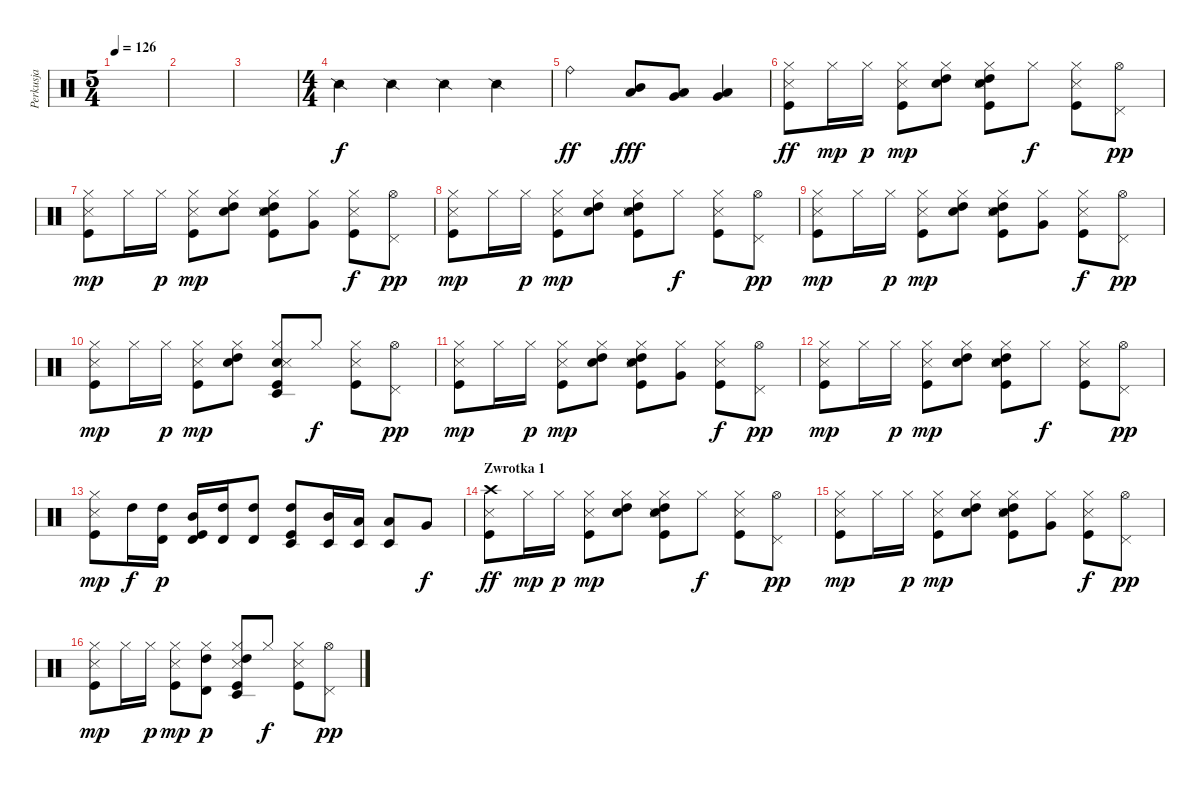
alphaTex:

\track ("Perkusja" "Perkusja") {instrument percussion}
\staff {score}
\articulation defaults
\ts (5 4)
\tempo 126
\clef neutral
\ks c
|
|
|
\ts (4 4)
"Snare (side stick) 2".4 "Snare (side stick) 2".4 "Snare (side stick) 2".4 "Snare (side stick) 2".4 |
"Ride (bell)".2{dy ff} ("Mid Tom (hit)" "Low Tom (hit)").8{dy fff} ("Low Tom (hit)" "Very Low Tom (hit)").8 ("Very Low Tom (hit)" "Low Floor Tom (hit)").4 |
("Hi-Hat (closed)" "Kick (hit)" "Snare (side stick) 3").8{dy ff} "Hi-Hat (closed)".16{dy mp} "Hi-Hat (closed)".16{dy p} ("Hi-Hat (closed)" "Kick (hit)" "Snare (side stick) 3").8{dy mp} ("Hi-Hat (closed)" "High Tom (hit)" "Electric Snare (hit)").8 ("Hi-Hat (closed)" "Kick (hit)" "High Tom (hit)" "Electric Snare (hit)" "Snare (side stick) 3").8 "Hi-Hat (closed)".8{dy f} ("Hi-Hat (closed)" "Kick (hit)" "Snare (side stick) 3").8 ("Hi-Hat (open)" "Pedal Hi-Hat (hit)").8{dy pp} |
("Hi-Hat (closed)" "Kick (hit)" "Snare (side stick) 3").8{dy mp} "Hi-Hat (closed)".16 "Hi-Hat (closed)".16{dy p} ("Hi-Hat (closed)" "Kick (hit)" "Snare (side stick) 3").8{dy mp} ("Hi-Hat (closed)" "High Tom (hit)" "Electric Snare (hit)").8 ("Hi-Hat (closed)" "Kick (hit)" "High Tom (hit)" "Electric Snare (hit)" "Snare (side stick) 3").8 ("Hi-Hat (closed)" "Very Low Tom (hit)").8 ("Hi-Hat (closed)" "Kick (hit)" "Snare (side stick) 3").8{dy f} ("Hi-Hat (open)" "Pedal Hi-Hat (hit)").8{dy pp} |
("Hi-Hat (closed)" "Kick (hit)" "Snare (side stick) 3").8{dy mp} "Hi-Hat (closed)".16 "Hi-Hat (closed)".16{dy p} ("Hi-Hat (closed)" "Kick (hit)" "Snare (side stick) 3").8{dy mp} ("Hi-Hat (closed)" "High Tom (hit)" "Electric Snare (hit)").8 ("Hi-Hat (closed)" "Kick (hit)" "High Tom (hit)" "Electric Snare (hit)" "Snare (side stick) 3").8 "Hi-Hat (closed)".8{dy f} ("Hi-Hat (closed)" "Kick (hit)" "Snare (side stick) 3").8 ("Hi-Hat (open)" "Pedal Hi-Hat (hit)").8{dy pp} |
("Hi-Hat (closed)" "Kick (hit)" "Snare (side stick) 3").8{dy mp} "Hi-Hat (closed)".16 "Hi-Hat (closed)".16{dy p} ("Hi-Hat (closed)" "Kick (hit)" "Snare (side stick) 3").8{dy mp} ("Hi-Hat (closed)" "High Tom (hit)" "Electric Snare (hit)").8 ("Hi-Hat (closed)" "Kick (hit)" "High Tom (hit)" "Electric Snare (hit)" "Snare (side stick) 3").8 ("Hi-Hat (closed)" "Very Low Tom (hit)").8 ("Hi-Hat (closed)" "Kick (hit)" "Snare (side stick) 3").8{dy f} ("Hi-Hat (open)" "Pedal Hi-Hat (hit)").8{dy pp} |
("Hi-Hat (closed)" "Kick (hit)" "Snare (side stick) 3").8{dy mp} "Hi-Hat (closed)".16 "Hi-Hat (closed)".16{dy p} ("Hi-Hat (closed)" "Kick (hit)" "Snare (side stick) 3").8{dy mp} ("Hi-Hat (closed)" "High Tom (hit)" "Electric Snare (hit)").8 ("Hi-Hat (closed)" "Kick (hit)" "Timbale low (hit)" "Electric Snare (hit)" "Snare (side stick) 3").8 "Hi-Hat (closed)".8{dy f} ("Hi-Hat (closed)" "Kick (hit)" "Snare (side stick) 3").8 ("Hi-Hat (open)" "Pedal Hi-Hat (hit)").8{dy pp} |
("Hi-Hat (closed)" "Kick (hit)" "Snare (side stick) 3").8{dy mp} "Hi-Hat (closed)".16 "Hi-Hat (closed)".16{dy p} ("Hi-Hat (closed)" "Kick (hit)" "Snare (side stick) 3").8{dy mp} ("Hi-Hat (closed)" "High Tom (hit)" "Electric Snare (hit)").8 ("Hi-Hat (closed)" "Kick (hit)" "High Tom (hit)" "Electric Snare (hit)" "Snare (side stick) 3").8 ("Hi-Hat (closed)" "Very Low Tom (hit)").8 ("Hi-Hat (closed)" "Kick (hit)" "Snare (side stick) 3").8{dy f} ("Hi-Hat (open)" "Pedal Hi-Hat (hit)").8{dy pp} |
("Hi-Hat (closed)" "Kick (hit)" "Snare (side stick) 3").8{dy mp} "Hi-Hat (closed)".16 "Hi-Hat (closed)".16{dy p} ("Hi-Hat (closed)" "Kick (hit)" "Snare (side stick) 3").8{dy mp} ("Hi-Hat (closed)" "High Tom (hit)" "Electric Snare (hit)").8 ("Hi-Hat (closed)" "Kick (hit)" "High Tom (hit)" "Electric Snare (hit)" "Snare (side stick) 3").8 "Hi-Hat (closed)".8{dy f} ("Hi-Hat (closed)" "Kick (hit)" "Snare (side stick) 3").8 ("Hi-Hat (open)" "Pedal Hi-Hat (hit)").8{dy pp} |
("Hi-Hat (closed)" "Kick (hit)" "Snare (side stick) 3").8{dy mp} "High Tom (hit)".16{dy f} ("High Tom (hit)" "Timbale high (hit)").16{dy p} ("Kick (hit)" "Mid Tom (hit)" "Timbale high (hit)").16 ("High Tom (hit)" "Timbale high (hit)").16 ("High Tom (hit)" "Timbale high (hit)").8 ("Kick (hit)" "High Tom (hit)" "Timbale low (hit)").8 ("Mid Tom (hit)" "Timbale low (hit)").16 ("Low Tom (hit)" "Timbale low (hit)").16 ("Low Tom (hit)" "Timbale low (hit)").8 "Very Low Tom (hit)".8{dy f} |
\section ("" "Zwrotka 1")
("Kick (hit)" "Crash high (hit)" "Snare (side stick) 3").8{dy ff} "Hi-Hat (closed)".16{dy mp} "Hi-Hat (closed)".16{dy p} ("Hi-Hat (closed)" "Kick (hit)" "Snare (side stick) 3").8{dy mp} ("Hi-Hat (closed)" "High Tom (hit)" "Electric Snare (hit)").8 ("Hi-Hat (closed)" "Kick (hit)" "High Tom (hit)" "Electric Snare (hit)" "Snare (side stick) 3").8 "Hi-Hat (closed)".8{dy f} ("Hi-Hat (closed)" "Kick (hit)" "Snare (side stick) 3").8 ("Hi-Hat (open)" "Pedal Hi-Hat (hit)").8{dy pp} |
("Hi-Hat (closed)" "Kick (hit)" "Snare (side stick) 3").8{dy mp} "Hi-Hat (closed)".16 "Hi-Hat (closed)".16{dy p} ("Hi-Hat (closed)" "Kick (hit)" "Snare (side stick) 3").8{dy mp} ("Hi-Hat (closed)" "High Tom (hit)" "Electric Snare (hit)").8 ("Hi-Hat (closed)" "Kick (hit)" "High Tom (hit)" "Electric Snare (hit)" "Snare (side stick) 3").8 ("Hi-Hat (closed)" "Very Low Tom (hit)").8 ("Hi-Hat (closed)" "Kick (hit)" "Snare (side stick) 3").8{dy f} ("Hi-Hat (open)" "Pedal Hi-Hat (hit)").8{dy pp} |
("Hi-Hat (closed)" "Kick (hit)" "Snare (side stick) 3").8{dy mp} "Hi-Hat (closed)".16 "Hi-Hat (closed)".16{dy p} ("Hi-Hat (closed)" "Kick (hit)" "Snare (side stick) 3").8{dy mp} ("Hi-Hat (closed)" "High Tom (hit)" "Timbale high (hit)").8{dy p} ("Hi-Hat (closed)" "Kick (hit)" "High Tom (hit)" "Timbale low (hit)" "Snare (side stick) 3").8 "Hi-Hat (closed)".8{dy f} ("Hi-Hat (closed)" "Kick (hit)" "Snare (side stick) 3").8 ("Hi-Hat (open)" "Pedal Hi-Hat (hit)").8{dy pp}
